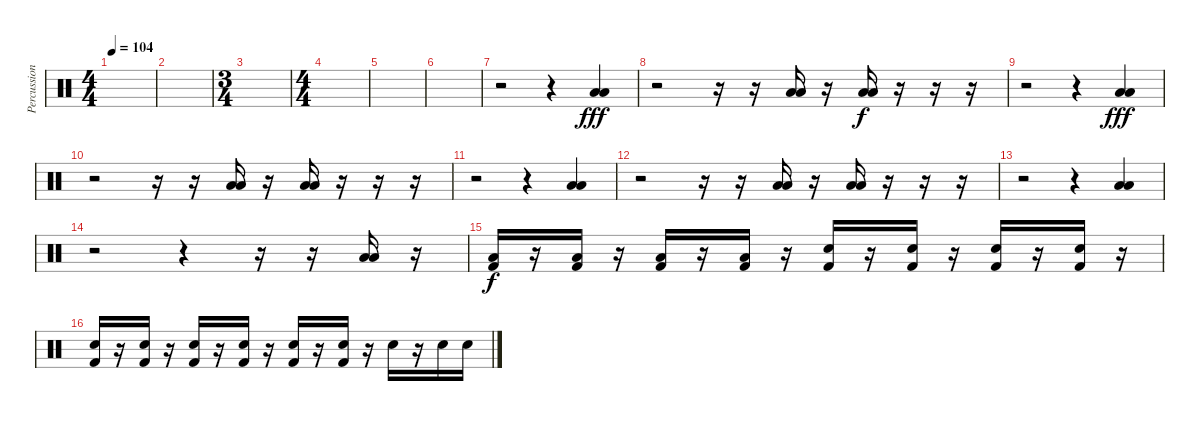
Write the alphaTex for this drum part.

\track ("Percussion" "Percussion") {instrument percussion}
\staff {score}
\articulation defaults
\ts (4 4)
\tempo 104
\clef neutral
\ks c
|
|
\ts (3 4)
|
\ts (4 4)
|
|
|
r.2 r.4 ("Low Tom (hit)" "Low Floor Tom (hit)").4{dy fff} |
r.2 r.16 r.16 ("Low Tom (hit)" "Low Floor Tom (hit)").16 r.16 ("Low Tom (hit)" "Low Floor Tom (hit)").16{dy f} r.16 r.16 r.16 |
r.2 r.4 ("Low Tom (hit)" "Low Floor Tom (hit)").4{dy fff} |
r.2 r.16 r.16 ("Low Tom (hit)" "Low Floor Tom (hit)").16 r.16 ("Low Tom (hit)" "Low Floor Tom (hit)").16 r.16 r.16 r.16 |
r.2 r.4 ("Low Tom (hit)" "Low Floor Tom (hit)").4 |
r.2 r.16 r.16 ("Low Tom (hit)" "Low Floor Tom (hit)").16 r.16 ("Low Tom (hit)" "Low Floor Tom (hit)").16 r.16 r.16 r.16 |
r.2 r.4 ("Low Tom (hit)" "Low Floor Tom (hit)").4 |
r.2 r.4 r.16 r.16 ("Low Tom (hit)" "Low Floor Tom (hit)").16 r.16 |
("Low Tom (hit)" "Kick (hit) 2").16{dy f} r.16 ("Low Tom (hit)" "Kick (hit) 2").16 r.16 ("Low Tom (hit)" "Kick (hit) 2").16 r.16 ("Low Tom (hit)" "Kick (hit) 2").16 r.16 ("Snare (hit) 2" "Kick (hit) 2").16 r.16 ("Snare (hit) 2" "Kick (hit) 2").16 r.16 ("Snare (hit) 2" "Kick (hit) 2").16 r.16 ("Snare (hit) 2" "Kick (hit) 2").16 r.16 |
("Snare (hit) 2" "Kick (hit) 2").16 r.16 ("Snare (hit) 2" "Kick (hit) 2").16 r.16 ("Snare (hit) 2" "Kick (hit) 2").16 r.16 ("Snare (hit) 2" "Kick (hit) 2").16 r.16 ("Snare (hit) 2" "Kick (hit) 2").16 r.16 ("Snare (hit) 2" "Kick (hit) 2").16 r.16 "Snare (hit) 2".16 r.16 "Snare (hit) 2".16 "Snare (hit) 2".16
